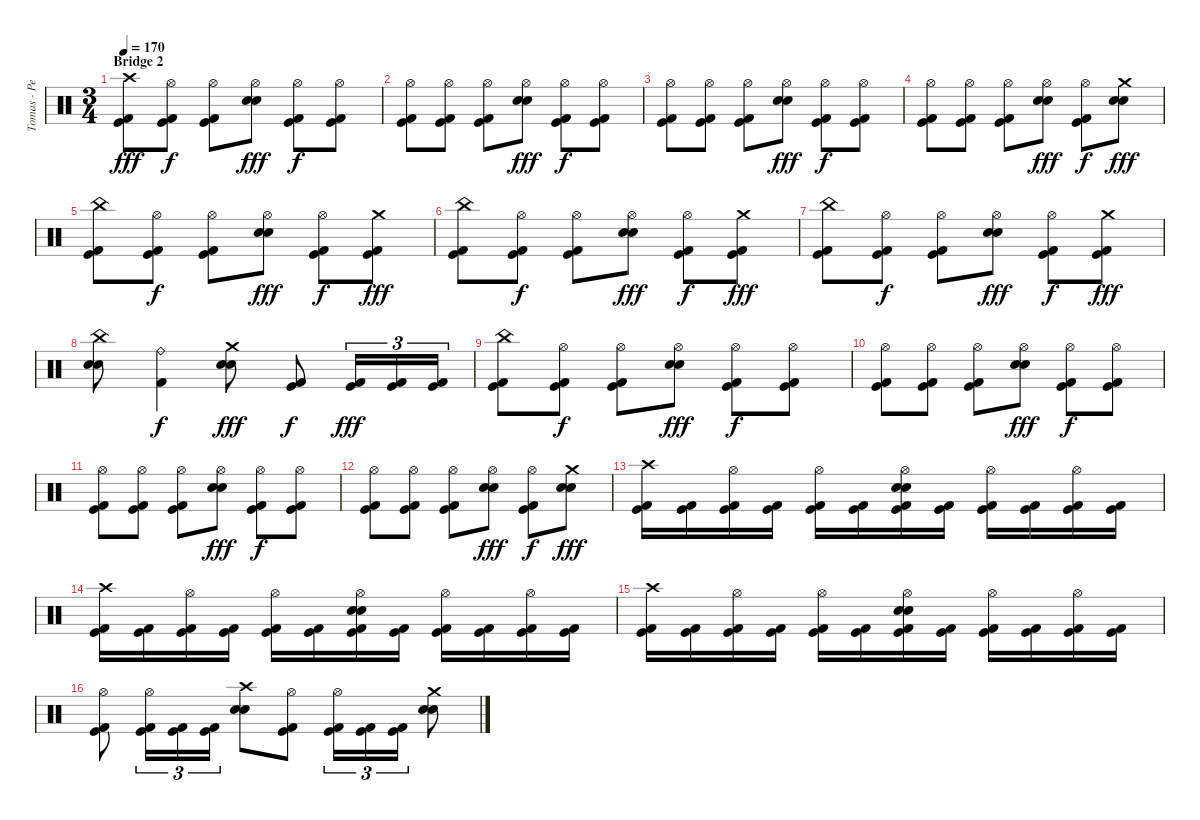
\track ("Tomas - Percussions" "Tomas - Pe") {instrument percussion}
\staff {score}
\articulation defaults
\ts (3 4)
\section ("" "Bridge 2")
\tempo 170
\clef neutral
\ks c
("Crash high (hit)" "Kick (hit)" "Kick (hit) 2").8{dy fff} ("Hi-Hat (open)" "Kick (hit)" "Kick (hit) 2").8{dy f} ("Hi-Hat (open)" "Kick (hit)" "Kick (hit) 2").8 ("Hi-Hat (open)" "Electric Snare (hit)" "Electric Snare (hit)").8{dy fff} ("Hi-Hat (open)" "Kick (hit)" "Kick (hit) 2").8{dy f} ("Hi-Hat (open)" "Kick (hit)" "Kick (hit) 2").8 |
("Hi-Hat (open)" "Kick (hit)" "Kick (hit) 2").8 ("Hi-Hat (open)" "Kick (hit)" "Kick (hit) 2").8 ("Hi-Hat (open)" "Kick (hit)" "Kick (hit) 2").8 ("Hi-Hat (open)" "Electric Snare (hit)" "Electric Snare (hit)").8{dy fff} ("Hi-Hat (open)" "Kick (hit)" "Kick (hit) 2").8{dy f} ("Hi-Hat (open)" "Kick (hit)" "Kick (hit) 2").8 |
("Hi-Hat (open)" "Kick (hit)" "Kick (hit) 2").8 ("Hi-Hat (open)" "Kick (hit)" "Kick (hit) 2").8 ("Hi-Hat (open)" "Kick (hit)" "Kick (hit) 2").8 ("Hi-Hat (open)" "Electric Snare (hit)" "Electric Snare (hit)").8{dy fff} ("Hi-Hat (open)" "Kick (hit)" "Kick (hit) 2").8{dy f} ("Hi-Hat (open)" "Kick (hit)" "Kick (hit) 2").8 |
("Hi-Hat (open)" "Kick (hit)" "Kick (hit) 2").8 ("Hi-Hat (open)" "Kick (hit)" "Kick (hit) 2").8 ("Hi-Hat (open)" "Kick (hit)" "Kick (hit) 2").8 ("Hi-Hat (open)" "Electric Snare (hit)" "Electric Snare (hit)").8{dy fff} ("Hi-Hat (open)" "Kick (hit)" "Kick (hit) 2").8{dy f} ("Crash medium (hit)" "Electric Snare (hit)" "Electric Snare (hit)").8{dy fff} |
("China (hit)" "Kick (hit)" "Kick (hit) 2").8 ("Hi-Hat (open)" "Kick (hit)" "Kick (hit) 2").8{dy f} ("Hi-Hat (open)" "Kick (hit)" "Kick (hit) 2").8 ("Hi-Hat (open)" "Electric Snare (hit)" "Electric Snare (hit)").8{dy fff} ("Hi-Hat (open)" "Kick (hit)" "Kick (hit) 2").8{dy f} ("Crash medium (hit)" "Kick (hit)" "Kick (hit) 2").8{dy fff} |
("China (hit)" "Kick (hit)" "Kick (hit) 2").8 ("Hi-Hat (open)" "Kick (hit)" "Kick (hit) 2").8{dy f} ("Hi-Hat (open)" "Kick (hit)" "Kick (hit) 2").8 ("Hi-Hat (open)" "Electric Snare (hit)" "Electric Snare (hit)").8{dy fff} ("Hi-Hat (open)" "Kick (hit)" "Kick (hit) 2").8{dy f} ("Crash medium (hit)" "Kick (hit)" "Kick (hit) 2").8{dy fff} |
("China (hit)" "Kick (hit)" "Kick (hit) 2").8 ("Hi-Hat (open)" "Kick (hit)" "Kick (hit) 2").8{dy f} ("Hi-Hat (open)" "Kick (hit)" "Kick (hit) 2").8 ("Hi-Hat (open)" "Electric Snare (hit)" "Electric Snare (hit)").8{dy fff} ("Hi-Hat (open)" "Kick (hit)" "Kick (hit) 2").8{dy f} ("Crash medium (hit)" "Kick (hit)" "Kick (hit) 2").8{dy fff} |
("China (hit)" "Electric Snare (hit)" "Electric Snare (hit)").8 ("Ride (bell)" "Kick (hit) 2").4{dy f} ("Crash medium (hit)" "Electric Snare (hit)" "Electric Snare (hit)").8{dy fff} ("Kick (hit)" "Kick (hit) 2").8{dy f} ("Kick (hit)" "Kick (hit) 2").16{tu (3 2) dy fff} ("Kick (hit)" "Kick (hit) 2").16{tu (3 2)} ("Kick (hit)" "Kick (hit) 2").16{tu (3 2)} |
("China (hit)" "Kick (hit)" "Kick (hit) 2").8 ("Hi-Hat (open)" "Kick (hit)" "Kick (hit) 2").8{dy f} ("Hi-Hat (open)" "Kick (hit)" "Kick (hit) 2").8 ("Hi-Hat (open)" "Electric Snare (hit)" "Electric Snare (hit)").8{dy fff} ("Hi-Hat (open)" "Kick (hit)" "Kick (hit) 2").8{dy f} ("Hi-Hat (open)" "Kick (hit)" "Kick (hit) 2").8 |
("Hi-Hat (open)" "Kick (hit)" "Kick (hit) 2").8 ("Hi-Hat (open)" "Kick (hit)" "Kick (hit) 2").8 ("Hi-Hat (open)" "Kick (hit)" "Kick (hit) 2").8 ("Hi-Hat (open)" "Electric Snare (hit)" "Electric Snare (hit)").8{dy fff} ("Hi-Hat (open)" "Kick (hit)" "Kick (hit) 2").8{dy f} ("Hi-Hat (open)" "Kick (hit)" "Kick (hit) 2").8 |
("Hi-Hat (open)" "Kick (hit)" "Kick (hit) 2").8 ("Hi-Hat (open)" "Kick (hit)" "Kick (hit) 2").8 ("Hi-Hat (open)" "Kick (hit)" "Kick (hit) 2").8 ("Hi-Hat (open)" "Electric Snare (hit)" "Electric Snare (hit)").8{dy fff} ("Hi-Hat (open)" "Kick (hit)" "Kick (hit) 2").8{dy f} ("Hi-Hat (open)" "Kick (hit)" "Kick (hit) 2").8 |
("Hi-Hat (open)" "Kick (hit)" "Kick (hit) 2").8 ("Hi-Hat (open)" "Kick (hit)" "Kick (hit) 2").8 ("Hi-Hat (open)" "Kick (hit)" "Kick (hit) 2").8 ("Hi-Hat (open)" "Electric Snare (hit)" "Electric Snare (hit)").8{dy fff} ("Hi-Hat (open)" "Kick (hit)" "Kick (hit) 2").8{dy f} ("Crash medium (hit)" "Electric Snare (hit)" "Electric Snare (hit)").8{dy fff} |
("Crash high (hit)" "Kick (hit)" "Kick (hit) 2").16 ("Kick (hit)" "Kick (hit) 2").16 ("Hi-Hat (open)" "Kick (hit)" "Kick (hit) 2").16 ("Kick (hit)" "Kick (hit) 2").16 ("Hi-Hat (open)" "Kick (hit)" "Kick (hit) 2").16 ("Kick (hit)" "Kick (hit) 2").16 ("Hi-Hat (open)" "Electric Snare (hit)" "Electric Snare (hit)" "Kick (hit)" "Kick (hit) 2").16 ("Kick (hit)" "Kick (hit) 2").16 ("Hi-Hat (open)" "Kick (hit)" "Kick (hit) 2").16 ("Kick (hit)" "Kick (hit) 2").16 ("Hi-Hat (open)" "Kick (hit)" "Kick (hit) 2").16 ("Kick (hit)" "Kick (hit) 2").16 |
("Crash high (hit)" "Kick (hit)" "Kick (hit) 2").16 ("Kick (hit)" "Kick (hit) 2").16 ("Hi-Hat (open)" "Kick (hit)" "Kick (hit) 2").16 ("Kick (hit)" "Kick (hit) 2").16 ("Hi-Hat (open)" "Kick (hit)" "Kick (hit) 2").16 ("Kick (hit)" "Kick (hit) 2").16 ("Hi-Hat (open)" "Electric Snare (hit)" "Electric Snare (hit)" "Kick (hit)" "Kick (hit) 2").16 ("Kick (hit)" "Kick (hit) 2").16 ("Hi-Hat (open)" "Kick (hit)" "Kick (hit) 2").16 ("Kick (hit)" "Kick (hit) 2").16 ("Hi-Hat (open)" "Kick (hit)" "Kick (hit) 2").16 ("Kick (hit)" "Kick (hit) 2").16 |
("Crash high (hit)" "Kick (hit)" "Kick (hit) 2").16 ("Kick (hit)" "Kick (hit) 2").16 ("Hi-Hat (open)" "Kick (hit)" "Kick (hit) 2").16 ("Kick (hit)" "Kick (hit) 2").16 ("Hi-Hat (open)" "Kick (hit)" "Kick (hit) 2").16 ("Kick (hit)" "Kick (hit) 2").16 ("Hi-Hat (open)" "Electric Snare (hit)" "Electric Snare (hit)" "Kick (hit)" "Kick (hit) 2").16 ("Kick (hit)" "Kick (hit) 2").16 ("Hi-Hat (open)" "Kick (hit)" "Kick (hit) 2").16 ("Kick (hit)" "Kick (hit) 2").16 ("Hi-Hat (open)" "Kick (hit)" "Kick (hit) 2").16 ("Kick (hit)" "Kick (hit) 2").16 |
("Hi-Hat (open)" "Kick (hit)" "Kick (hit) 2").8 ("Hi-Hat (open)" "Kick (hit)" "Kick (hit) 2").16{tu (3 2)} ("Kick (hit)" "Kick (hit) 2").16{tu (3 2)} ("Kick (hit)" "Kick (hit) 2").16{tu (3 2)} ("Crash high (hit)" "Electric Snare (hit)" "Electric Snare (hit)").8 ("Hi-Hat (open)" "Kick (hit)" "Kick (hit) 2").8 ("Hi-Hat (open)" "Kick (hit)" "Kick (hit) 2").16{tu (3 2)} ("Kick (hit)" "Kick (hit) 2").16{tu (3 2)} ("Kick (hit)" "Kick (hit) 2").16{tu (3 2)} ("Crash medium (hit)" "Electric Snare (hit)" "Electric Snare (hit)").8
